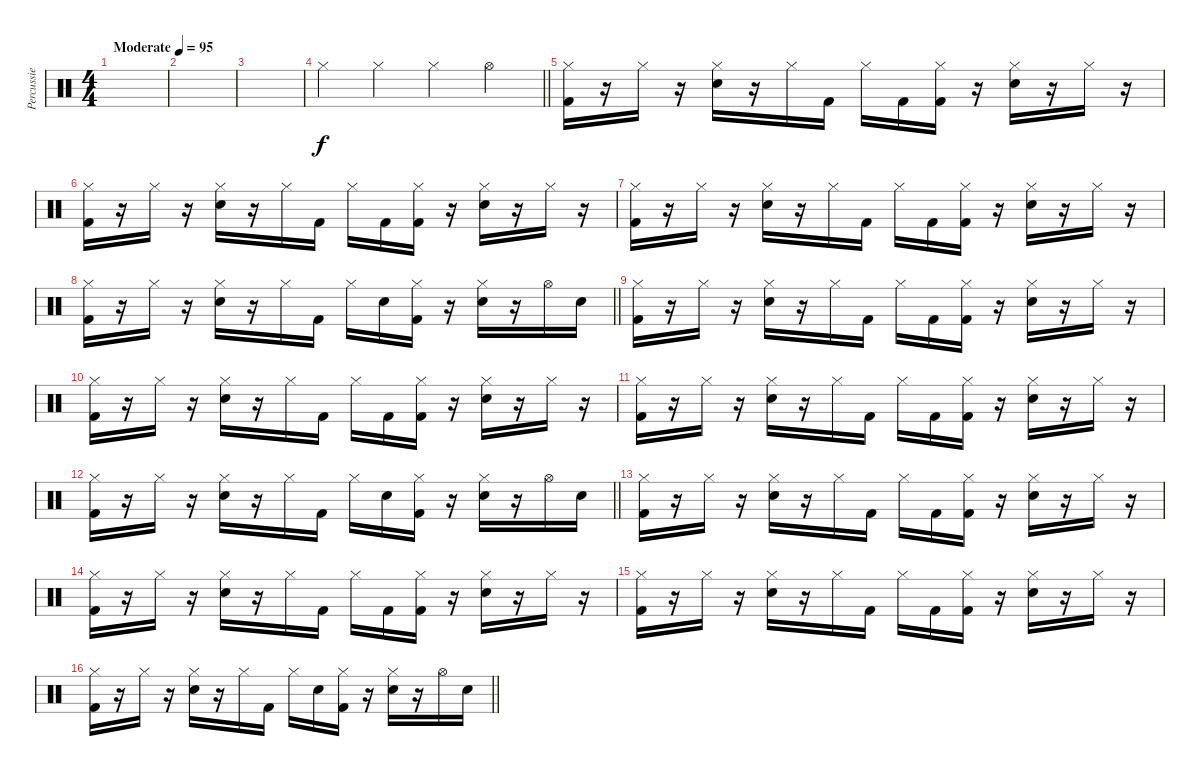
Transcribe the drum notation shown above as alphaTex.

\track ("Percussie" "Percussie") {instrument percussion}
\staff {score}
\articulation defaults
\ts (4 4)
\tempo (95 "Moderate")
\clef neutral
\ks c
|
|
|
\barLineRight lightlight "Hi-Hat (closed)".4 "Hi-Hat (closed)".4 "Hi-Hat (closed)".4 "Hi-Hat (open)".4
|
("Hi-Hat (closed)" "Kick (hit) 2").16 r.16 "Hi-Hat (closed)".16 r.16 ("Hi-Hat (closed)" "Electric Snare (hit)").16 r.16 "Hi-Hat (closed)".16 "Kick (hit) 2".16 "Hi-Hat (closed)".16 "Kick (hit) 2".16 ("Hi-Hat (closed)" "Kick (hit) 2").16 r.16 ("Hi-Hat (closed)" "Electric Snare (hit)").16 r.16 "Hi-Hat (closed)".16 r.16 |
("Hi-Hat (closed)" "Kick (hit) 2").16 r.16 "Hi-Hat (closed)".16 r.16 ("Hi-Hat (closed)" "Electric Snare (hit)").16 r.16 "Hi-Hat (closed)".16 "Kick (hit) 2".16 "Hi-Hat (closed)".16 "Kick (hit) 2".16 ("Hi-Hat (closed)" "Kick (hit) 2").16 r.16 ("Hi-Hat (closed)" "Electric Snare (hit)").16 r.16 "Hi-Hat (closed)".16 r.16 |
("Hi-Hat (closed)" "Kick (hit) 2").16 r.16 "Hi-Hat (closed)".16 r.16 ("Hi-Hat (closed)" "Electric Snare (hit)").16 r.16 "Hi-Hat (closed)".16 "Kick (hit) 2".16 "Hi-Hat (closed)".16 "Kick (hit) 2".16 ("Hi-Hat (closed)" "Kick (hit) 2").16 r.16 ("Hi-Hat (closed)" "Electric Snare (hit)").16 r.16 "Hi-Hat (closed)".16 r.16 |
\barLineRight lightlight
("Hi-Hat (closed)" "Kick (hit) 2").16 r.16 "Hi-Hat (closed)".16 r.16 ("Hi-Hat (closed)" "Electric Snare (hit)").16 r.16 "Hi-Hat (closed)".16 "Kick (hit) 2".16 "Hi-Hat (closed)".16 "Electric Snare (hit)".16 ("Hi-Hat (closed)" "Kick (hit) 2").16 r.16 ("Hi-Hat (closed)" "Electric Snare (hit)").16 r.16 "Hi-Hat (open)".16 "Electric Snare (hit)".16 |
("Hi-Hat (closed)" "Kick (hit) 2").16 r.16 "Hi-Hat (closed)".16 r.16 ("Hi-Hat (closed)" "Electric Snare (hit)").16 r.16 "Hi-Hat (closed)".16 "Kick (hit) 2".16 "Hi-Hat (closed)".16 "Kick (hit) 2".16 ("Hi-Hat (closed)" "Kick (hit) 2").16 r.16 ("Hi-Hat (closed)" "Electric Snare (hit)").16 r.16 "Hi-Hat (closed)".16 r.16 |
("Hi-Hat (closed)" "Kick (hit) 2").16 r.16 "Hi-Hat (closed)".16 r.16 ("Hi-Hat (closed)" "Electric Snare (hit)").16 r.16 "Hi-Hat (closed)".16 "Kick (hit) 2".16 "Hi-Hat (closed)".16 "Kick (hit) 2".16 ("Hi-Hat (closed)" "Kick (hit) 2").16 r.16 ("Hi-Hat (closed)" "Electric Snare (hit)").16 r.16 "Hi-Hat (closed)".16 r.16 |
("Hi-Hat (closed)" "Kick (hit) 2").16 r.16 "Hi-Hat (closed)".16 r.16 ("Hi-Hat (closed)" "Electric Snare (hit)").16 r.16 "Hi-Hat (closed)".16 "Kick (hit) 2".16 "Hi-Hat (closed)".16 "Kick (hit) 2".16 ("Hi-Hat (closed)" "Kick (hit) 2").16 r.16 ("Hi-Hat (closed)" "Electric Snare (hit)").16 r.16 "Hi-Hat (closed)".16 r.16 |
\barLineRight lightlight
("Hi-Hat (closed)" "Kick (hit) 2").16 r.16 "Hi-Hat (closed)".16 r.16 ("Hi-Hat (closed)" "Electric Snare (hit)").16 r.16 "Hi-Hat (closed)".16 "Kick (hit) 2".16 "Hi-Hat (closed)".16 "Electric Snare (hit)".16 ("Hi-Hat (closed)" "Kick (hit) 2").16 r.16 ("Hi-Hat (closed)" "Electric Snare (hit)").16 r.16 "Hi-Hat (open)".16 "Electric Snare (hit)".16 |
("Hi-Hat (closed)" "Kick (hit) 2").16 r.16 "Hi-Hat (closed)".16 r.16 ("Hi-Hat (closed)" "Electric Snare (hit)").16 r.16 "Hi-Hat (closed)".16 "Kick (hit) 2".16 "Hi-Hat (closed)".16 "Kick (hit) 2".16 ("Hi-Hat (closed)" "Kick (hit) 2").16 r.16 ("Hi-Hat (closed)" "Electric Snare (hit)").16 r.16 "Hi-Hat (closed)".16 r.16 |
("Hi-Hat (closed)" "Kick (hit) 2").16 r.16 "Hi-Hat (closed)".16 r.16 ("Hi-Hat (closed)" "Electric Snare (hit)").16 r.16 "Hi-Hat (closed)".16 "Kick (hit) 2".16 "Hi-Hat (closed)".16 "Kick (hit) 2".16 ("Hi-Hat (closed)" "Kick (hit) 2").16 r.16 ("Hi-Hat (closed)" "Electric Snare (hit)").16 r.16 "Hi-Hat (closed)".16 r.16 |
("Hi-Hat (closed)" "Kick (hit) 2").16 r.16 "Hi-Hat (closed)".16 r.16 ("Hi-Hat (closed)" "Electric Snare (hit)").16 r.16 "Hi-Hat (closed)".16 "Kick (hit) 2".16 "Hi-Hat (closed)".16 "Kick (hit) 2".16 ("Hi-Hat (closed)" "Kick (hit) 2").16 r.16 ("Hi-Hat (closed)" "Electric Snare (hit)").16 r.16 "Hi-Hat (closed)".16 r.16 |
\barLineRight lightlight
("Hi-Hat (closed)" "Kick (hit) 2").16 r.16 "Hi-Hat (closed)".16 r.16 ("Hi-Hat (closed)" "Electric Snare (hit)").16 r.16 "Hi-Hat (closed)".16 "Kick (hit) 2".16 "Hi-Hat (closed)".16 "Electric Snare (hit)".16 ("Hi-Hat (closed)" "Kick (hit) 2").16 r.16 ("Hi-Hat (closed)" "Electric Snare (hit)").16 r.16 "Hi-Hat (open)".16 "Electric Snare (hit)".16
